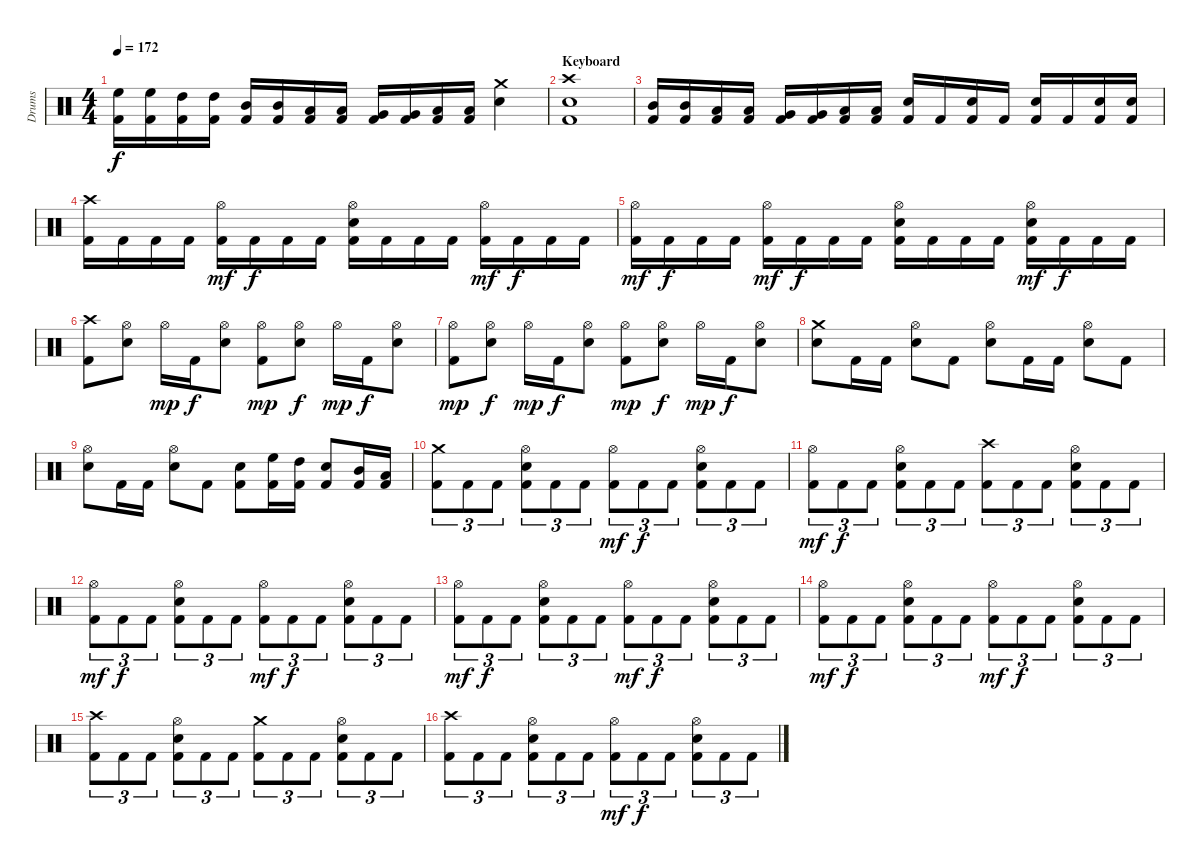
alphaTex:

\track ("Drums" "Drums") {instrument percussion}
\staff {score}
\articulation defaults
\ts (4 4)
\tempo 172
\clef neutral
\ks c
("Kick (hit) 2" "High Floor Tom (hit)").16{dy f} ("Kick (hit) 2" "High Floor Tom (hit)").16 ("Kick (hit) 2" "High Tom (hit)").16 ("Kick (hit) 2" "High Tom (hit)").16 ("Kick (hit) 2" "Mid Tom (hit)").16 ("Kick (hit) 2" "Mid Tom (hit)").16 ("Kick (hit) 2" "Low Tom (hit)").16 ("Kick (hit) 2" "Low Tom (hit)").16 ("Kick (hit) 2" "Very Low Tom (hit)").16 ("Kick (hit) 2" "Very Low Tom (hit)").16 ("Kick (hit) 2" "Low Floor Tom (hit)").16 ("Kick (hit) 2" "Low Floor Tom (hit)").16 ("Snare (hit) 2" "Crash medium (hit)").4 |
\section ("" "Keyboard")
("Kick (hit) 2" "Snare (hit) 2" "Crash high (hit)").1 |
("Kick (hit) 2" "Mid Tom (hit)").16 ("Kick (hit) 2" "Mid Tom (hit)").16 ("Kick (hit) 2" "Low Tom (hit)").16 ("Kick (hit) 2" "Low Tom (hit)").16 ("Kick (hit) 2" "Very Low Tom (hit)").16 ("Kick (hit) 2" "Very Low Tom (hit)").16 ("Kick (hit) 2" "Low Floor Tom (hit)").16 ("Kick (hit) 2" "Low Floor Tom (hit)").16 ("Kick (hit) 2" "Snare (hit) 2").16 "Kick (hit) 2".16 ("Kick (hit) 2" "Snare (hit) 2").16 "Kick (hit) 2".16 ("Kick (hit) 2" "Snare (hit) 2").16 "Kick (hit) 2".16 ("Kick (hit) 2" "Snare (hit) 2").16 ("Kick (hit) 2" "Snare (hit) 2").16 |
("Kick (hit) 2" "Crash high (hit)").16 "Kick (hit) 2".16 "Kick (hit) 2".16 "Kick (hit) 2".16 ("Kick (hit) 2" "Hi-Hat (open)").16{dy mf} "Kick (hit) 2".16{dy f} "Kick (hit) 2".16 "Kick (hit) 2".16 ("Kick (hit) 2" "Snare (hit) 2" "Hi-Hat (open)").16 "Kick (hit) 2".16 "Kick (hit) 2".16 "Kick (hit) 2".16 ("Kick (hit) 2" "Hi-Hat (open)").16{dy mf} "Kick (hit) 2".16{dy f} "Kick (hit) 2".16 "Kick (hit) 2".16 |
("Kick (hit) 2" "Hi-Hat (open)").16{dy mf} "Kick (hit) 2".16{dy f} "Kick (hit) 2".16 "Kick (hit) 2".16 ("Kick (hit) 2" "Hi-Hat (open)").16{dy mf} "Kick (hit) 2".16{dy f} "Kick (hit) 2".16 "Kick (hit) 2".16 ("Kick (hit) 2" "Snare (hit) 2" "Hi-Hat (open)").16 "Kick (hit) 2".16 "Kick (hit) 2".16 "Kick (hit) 2".16 ("Kick (hit) 2" "Snare (hit) 2" "Hi-Hat (open)").16{dy mf} "Kick (hit) 2".16{dy f} "Kick (hit) 2".16 "Kick (hit) 2".16 |
("Kick (hit) 2" "Crash high (hit)").8 ("Snare (hit) 2" "Hi-Hat (open)").8 "Hi-Hat (open)".16{dy mp} "Kick (hit) 2".16{dy f} ("Snare (hit) 2" "Hi-Hat (open)").8 ("Kick (hit) 2" "Hi-Hat (open)").8{dy mp} ("Snare (hit) 2" "Hi-Hat (open)").8{dy f} "Hi-Hat (open)".16{dy mp} "Kick (hit) 2".16{dy f} ("Snare (hit) 2" "Hi-Hat (open)").8 |
("Kick (hit) 2" "Hi-Hat (open)").8{dy mp} ("Snare (hit) 2" "Hi-Hat (open)").8{dy f} "Hi-Hat (open)".16{dy mp} "Kick (hit) 2".16{dy f} ("Snare (hit) 2" "Hi-Hat (open)").8 ("Kick (hit) 2" "Hi-Hat (open)").8{dy mp} ("Snare (hit) 2" "Hi-Hat (open)").8{dy f} "Hi-Hat (open)".16{dy mp} "Kick (hit) 2".16{dy f} ("Snare (hit) 2" "Hi-Hat (open)").8 |
\section ("" "")
("Snare (hit) 2" "Crash medium (hit)").8 "Kick (hit) 2".16 "Kick (hit) 2".16 ("Snare (hit) 2" "Hi-Hat (open)").8 "Kick (hit) 2".8 ("Snare (hit) 2" "Hi-Hat (open)").8 "Kick (hit) 2".16 "Kick (hit) 2".16 ("Snare (hit) 2" "Hi-Hat (open)").8 "Kick (hit) 2".8 |
("Snare (hit) 2" "Hi-Hat (open)").8 "Kick (hit) 2".16 "Kick (hit) 2".16 ("Snare (hit) 2" "Hi-Hat (open)").8 "Kick (hit) 2".8 ("Kick (hit) 2" "Snare (hit) 2").8 ("Kick (hit) 2" "High Floor Tom (hit)").16 ("Kick (hit) 2" "High Tom (hit)").16 ("Kick (hit) 2" "Snare (hit) 2").8 ("Kick (hit) 2" "Mid Tom (hit)").16 ("Kick (hit) 2" "Low Tom (hit)").16 |
("Kick (hit) 2" "Crash medium (hit)").8{tu (3 2)} "Kick (hit) 2".8{tu (3 2)} "Kick (hit) 2".8{tu (3 2)} ("Kick (hit) 2" "Snare (hit) 2" "Hi-Hat (open)").8{tu (3 2)} "Kick (hit) 2".8{tu (3 2)} "Kick (hit) 2".8{tu (3 2)} ("Kick (hit) 2" "Hi-Hat (open)").8{tu (3 2) dy mf} "Kick (hit) 2".8{tu (3 2) dy f} "Kick (hit) 2".8{tu (3 2)} ("Kick (hit) 2" "Snare (hit) 2" "Hi-Hat (open)").8{tu (3 2)} "Kick (hit) 2".8{tu (3 2)} "Kick (hit) 2".8{tu (3 2)} |
("Kick (hit) 2" "Hi-Hat (open)").8{tu (3 2) dy mf} "Kick (hit) 2".8{tu (3 2) dy f} "Kick (hit) 2".8{tu (3 2)} ("Kick (hit) 2" "Snare (hit) 2" "Hi-Hat (open)").8{tu (3 2)} "Kick (hit) 2".8{tu (3 2)} "Kick (hit) 2".8{tu (3 2)} ("Kick (hit) 2" "Crash high (hit)").8{tu (3 2)} "Kick (hit) 2".8{tu (3 2)} "Kick (hit) 2".8{tu (3 2)} ("Kick (hit) 2" "Snare (hit) 2" "Hi-Hat (open)").8{tu (3 2)} "Kick (hit) 2".8{tu (3 2)} "Kick (hit) 2".8{tu (3 2)} |
("Kick (hit) 2" "Hi-Hat (open)").8{tu (3 2) dy mf} "Kick (hit) 2".8{tu (3 2) dy f} "Kick (hit) 2".8{tu (3 2)} ("Kick (hit) 2" "Snare (hit) 2" "Hi-Hat (open)").8{tu (3 2)} "Kick (hit) 2".8{tu (3 2)} "Kick (hit) 2".8{tu (3 2)} ("Kick (hit) 2" "Hi-Hat (open)").8{tu (3 2) dy mf} "Kick (hit) 2".8{tu (3 2) dy f} "Kick (hit) 2".8{tu (3 2)} ("Kick (hit) 2" "Snare (hit) 2" "Hi-Hat (open)").8{tu (3 2)} "Kick (hit) 2".8{tu (3 2)} "Kick (hit) 2".8{tu (3 2)} |
("Kick (hit) 2" "Hi-Hat (open)").8{tu (3 2) dy mf} "Kick (hit) 2".8{tu (3 2) dy f} "Kick (hit) 2".8{tu (3 2)} ("Kick (hit) 2" "Snare (hit) 2" "Hi-Hat (open)").8{tu (3 2)} "Kick (hit) 2".8{tu (3 2)} "Kick (hit) 2".8{tu (3 2)} ("Kick (hit) 2" "Hi-Hat (open)").8{tu (3 2) dy mf} "Kick (hit) 2".8{tu (3 2) dy f} "Kick (hit) 2".8{tu (3 2)} ("Kick (hit) 2" "Snare (hit) 2" "Hi-Hat (open)").8{tu (3 2)} "Kick (hit) 2".8{tu (3 2)} "Kick (hit) 2".8{tu (3 2)} |
("Kick (hit) 2" "Hi-Hat (open)").8{tu (3 2) dy mf} "Kick (hit) 2".8{tu (3 2) dy f} "Kick (hit) 2".8{tu (3 2)} ("Kick (hit) 2" "Snare (hit) 2" "Hi-Hat (open)").8{tu (3 2)} "Kick (hit) 2".8{tu (3 2)} "Kick (hit) 2".8{tu (3 2)} ("Kick (hit) 2" "Hi-Hat (open)").8{tu (3 2) dy mf} "Kick (hit) 2".8{tu (3 2) dy f} "Kick (hit) 2".8{tu (3 2)} ("Kick (hit) 2" "Snare (hit) 2" "Hi-Hat (open)").8{tu (3 2)} "Kick (hit) 2".8{tu (3 2)} "Kick (hit) 2".8{tu (3 2)} |
("Kick (hit) 2" "Crash high (hit)").8{tu (3 2)} "Kick (hit) 2".8{tu (3 2)} "Kick (hit) 2".8{tu (3 2)} ("Kick (hit) 2" "Snare (hit) 2" "Hi-Hat (open)").8{tu (3 2)} "Kick (hit) 2".8{tu (3 2)} "Kick (hit) 2".8{tu (3 2)} ("Kick (hit) 2" "Crash medium (hit)").8{tu (3 2)} "Kick (hit) 2".8{tu (3 2)} "Kick (hit) 2".8{tu (3 2)} ("Kick (hit) 2" "Snare (hit) 2" "Hi-Hat (open)").8{tu (3 2)} "Kick (hit) 2".8{tu (3 2)} "Kick (hit) 2".8{tu (3 2)} |
("Kick (hit) 2" "Crash high (hit)").8{tu (3 2)} "Kick (hit) 2".8{tu (3 2)} "Kick (hit) 2".8{tu (3 2)} ("Kick (hit) 2" "Snare (hit) 2" "Hi-Hat (open)").8{tu (3 2)} "Kick (hit) 2".8{tu (3 2)} "Kick (hit) 2".8{tu (3 2)} ("Kick (hit) 2" "Hi-Hat (open)").8{tu (3 2) dy mf} "Kick (hit) 2".8{tu (3 2) dy f} "Kick (hit) 2".8{tu (3 2)} ("Kick (hit) 2" "Snare (hit) 2" "Hi-Hat (open)").8{tu (3 2)} "Kick (hit) 2".8{tu (3 2)} "Kick (hit) 2".8{tu (3 2)}
